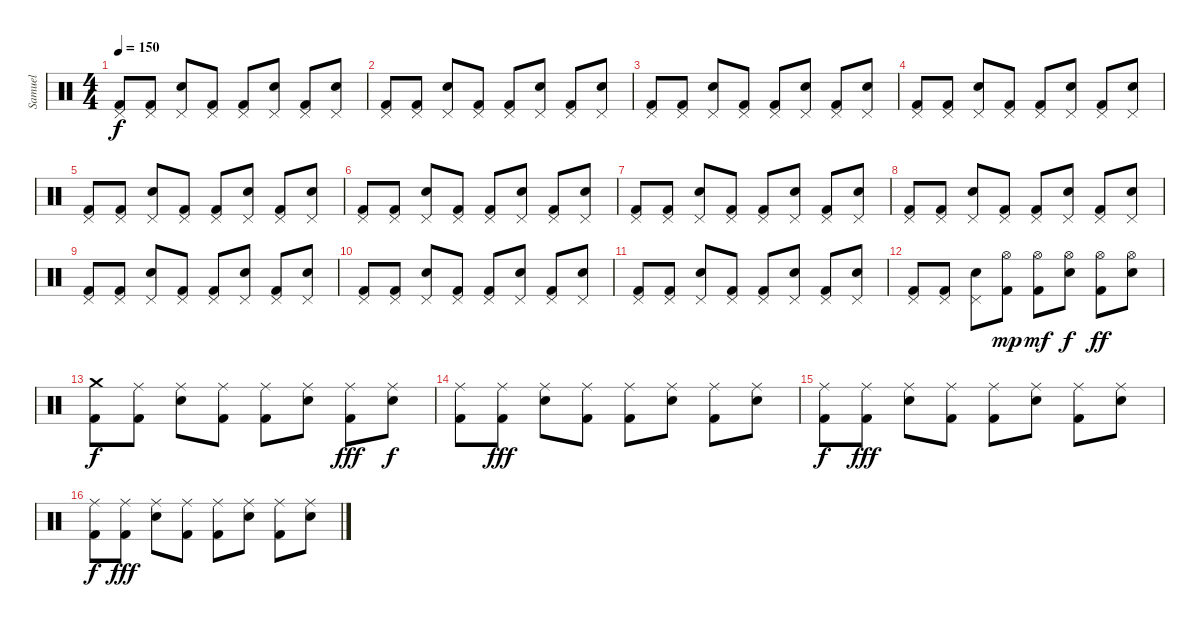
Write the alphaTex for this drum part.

\track ("Samuel" "Samuel") {instrument percussion}
\staff {score}
\articulation defaults
\ts (4 4)
\tempo 150
\clef neutral
\ks c
("Pedal Hi-Hat (hit)" "Kick (hit) 2").8{dy f} ("Pedal Hi-Hat (hit)" "Kick (hit) 2").8 ("Pedal Hi-Hat (hit)" "Snare (hit) 2").8 ("Pedal Hi-Hat (hit)" "Kick (hit) 2").8 ("Pedal Hi-Hat (hit)" "Kick (hit) 2").8 ("Pedal Hi-Hat (hit)" "Snare (hit) 2").8 ("Pedal Hi-Hat (hit)" "Kick (hit) 2").8 ("Pedal Hi-Hat (hit)" "Snare (hit) 2").8 |
("Pedal Hi-Hat (hit)" "Kick (hit) 2").8 ("Pedal Hi-Hat (hit)" "Kick (hit) 2").8 ("Pedal Hi-Hat (hit)" "Snare (hit) 2").8 ("Pedal Hi-Hat (hit)" "Kick (hit) 2").8 ("Pedal Hi-Hat (hit)" "Kick (hit) 2").8 ("Pedal Hi-Hat (hit)" "Snare (hit) 2").8 ("Pedal Hi-Hat (hit)" "Kick (hit) 2").8 ("Pedal Hi-Hat (hit)" "Snare (hit) 2").8 |
("Pedal Hi-Hat (hit)" "Kick (hit) 2").8 ("Pedal Hi-Hat (hit)" "Kick (hit) 2").8 ("Pedal Hi-Hat (hit)" "Snare (hit) 2").8 ("Pedal Hi-Hat (hit)" "Kick (hit) 2").8 ("Pedal Hi-Hat (hit)" "Kick (hit) 2").8 ("Pedal Hi-Hat (hit)" "Snare (hit) 2").8 ("Pedal Hi-Hat (hit)" "Kick (hit) 2").8 ("Pedal Hi-Hat (hit)" "Snare (hit) 2").8 |
("Pedal Hi-Hat (hit)" "Kick (hit) 2").8 ("Pedal Hi-Hat (hit)" "Kick (hit) 2").8 ("Pedal Hi-Hat (hit)" "Snare (hit) 2").8 ("Pedal Hi-Hat (hit)" "Kick (hit) 2").8 ("Pedal Hi-Hat (hit)" "Kick (hit) 2").8 ("Pedal Hi-Hat (hit)" "Snare (hit) 2").8 ("Pedal Hi-Hat (hit)" "Kick (hit) 2").8 ("Pedal Hi-Hat (hit)" "Snare (hit) 2").8 |
("Pedal Hi-Hat (hit)" "Kick (hit) 2").8 ("Pedal Hi-Hat (hit)" "Kick (hit) 2").8 ("Pedal Hi-Hat (hit)" "Snare (hit) 2").8 ("Pedal Hi-Hat (hit)" "Kick (hit) 2").8 ("Pedal Hi-Hat (hit)" "Kick (hit) 2").8 ("Pedal Hi-Hat (hit)" "Snare (hit) 2").8 ("Pedal Hi-Hat (hit)" "Kick (hit) 2").8 ("Pedal Hi-Hat (hit)" "Snare (hit) 2").8 |
("Pedal Hi-Hat (hit)" "Kick (hit) 2").8 ("Pedal Hi-Hat (hit)" "Kick (hit) 2").8 ("Pedal Hi-Hat (hit)" "Snare (hit) 2").8 ("Pedal Hi-Hat (hit)" "Kick (hit) 2").8 ("Pedal Hi-Hat (hit)" "Kick (hit) 2").8 ("Pedal Hi-Hat (hit)" "Snare (hit) 2").8 ("Pedal Hi-Hat (hit)" "Kick (hit) 2").8 ("Pedal Hi-Hat (hit)" "Snare (hit) 2").8 |
("Pedal Hi-Hat (hit)" "Kick (hit) 2").8 ("Pedal Hi-Hat (hit)" "Kick (hit) 2").8 ("Pedal Hi-Hat (hit)" "Snare (hit) 2").8 ("Pedal Hi-Hat (hit)" "Kick (hit) 2").8 ("Pedal Hi-Hat (hit)" "Kick (hit) 2").8 ("Pedal Hi-Hat (hit)" "Snare (hit) 2").8 ("Pedal Hi-Hat (hit)" "Kick (hit) 2").8 ("Pedal Hi-Hat (hit)" "Snare (hit) 2").8 |
("Pedal Hi-Hat (hit)" "Kick (hit) 2").8 ("Pedal Hi-Hat (hit)" "Kick (hit) 2").8 ("Pedal Hi-Hat (hit)" "Snare (hit) 2").8 ("Pedal Hi-Hat (hit)" "Kick (hit) 2").8 ("Pedal Hi-Hat (hit)" "Kick (hit) 2").8 ("Pedal Hi-Hat (hit)" "Snare (hit) 2").8 ("Pedal Hi-Hat (hit)" "Kick (hit) 2").8 ("Pedal Hi-Hat (hit)" "Snare (hit) 2").8 |
("Pedal Hi-Hat (hit)" "Kick (hit) 2").8 ("Pedal Hi-Hat (hit)" "Kick (hit) 2").8 ("Pedal Hi-Hat (hit)" "Snare (hit) 2").8 ("Pedal Hi-Hat (hit)" "Kick (hit) 2").8 ("Pedal Hi-Hat (hit)" "Kick (hit) 2").8 ("Pedal Hi-Hat (hit)" "Snare (hit) 2").8 ("Pedal Hi-Hat (hit)" "Kick (hit) 2").8 ("Pedal Hi-Hat (hit)" "Snare (hit) 2").8 |
("Pedal Hi-Hat (hit)" "Kick (hit) 2").8 ("Pedal Hi-Hat (hit)" "Kick (hit) 2").8 ("Pedal Hi-Hat (hit)" "Snare (hit) 2").8 ("Pedal Hi-Hat (hit)" "Kick (hit) 2").8 ("Pedal Hi-Hat (hit)" "Kick (hit) 2").8 ("Pedal Hi-Hat (hit)" "Snare (hit) 2").8 ("Pedal Hi-Hat (hit)" "Kick (hit) 2").8 ("Pedal Hi-Hat (hit)" "Snare (hit) 2").8 |
("Pedal Hi-Hat (hit)" "Kick (hit) 2").8 ("Pedal Hi-Hat (hit)" "Kick (hit) 2").8 ("Pedal Hi-Hat (hit)" "Snare (hit) 2").8 ("Pedal Hi-Hat (hit)" "Kick (hit) 2").8 ("Pedal Hi-Hat (hit)" "Kick (hit) 2").8 ("Pedal Hi-Hat (hit)" "Snare (hit) 2").8 ("Pedal Hi-Hat (hit)" "Kick (hit) 2").8 ("Pedal Hi-Hat (hit)" "Snare (hit) 2").8 |
("Pedal Hi-Hat (hit)" "Kick (hit) 2").8 ("Pedal Hi-Hat (hit)" "Kick (hit) 2").8 ("Pedal Hi-Hat (hit)" "Snare (hit) 2").8 ("Hi-Hat (open)" "Kick (hit) 2").8{dy mp} ("Hi-Hat (open)" "Kick (hit) 2").8{dy mf} ("Hi-Hat (open)" "Snare (hit) 2").8{dy f} ("Hi-Hat (open)" "Kick (hit) 2").8{dy ff} ("Hi-Hat (open)" "Snare (hit) 2").8 |
("Crash medium (hit)" "Kick (hit) 2").8{dy f} ("Ride (middle)" "Kick (hit) 2").8 ("Ride (middle)" "Snare (hit) 2").8 ("Ride (middle)" "Kick (hit) 2").8 ("Ride (middle)" "Kick (hit) 2").8 ("Ride (middle)" "Snare (hit) 2").8 ("Ride (middle)" "Kick (hit) 2").8{dy fff} ("Ride (middle)" "Snare (hit) 2").8{dy f} |
("Ride (middle)" "Kick (hit) 2").8 ("Ride (middle)" "Kick (hit) 2").8{dy fff} ("Ride (middle)" "Snare (hit) 2").8 ("Ride (middle)" "Kick (hit) 2").8 ("Ride (middle)" "Kick (hit) 2").8 ("Ride (middle)" "Snare (hit) 2").8 ("Ride (middle)" "Kick (hit) 2").8 ("Ride (middle)" "Snare (hit) 2").8 |
("Ride (middle)" "Kick (hit) 2").8{dy f} ("Ride (middle)" "Kick (hit) 2").8{dy fff} ("Ride (middle)" "Snare (hit) 2").8 ("Ride (middle)" "Kick (hit) 2").8 ("Ride (middle)" "Kick (hit) 2").8 ("Ride (middle)" "Snare (hit) 2").8 ("Ride (middle)" "Kick (hit) 2").8 ("Ride (middle)" "Snare (hit) 2").8 |
("Ride (middle)" "Kick (hit) 2").8{dy f} ("Ride (middle)" "Kick (hit) 2").8{dy fff} ("Ride (middle)" "Snare (hit) 2").8 ("Ride (middle)" "Kick (hit) 2").8 ("Ride (middle)" "Kick (hit) 2").8 ("Ride (middle)" "Snare (hit) 2").8 ("Ride (middle)" "Kick (hit) 2").8 ("Ride (middle)" "Snare (hit) 2").8
